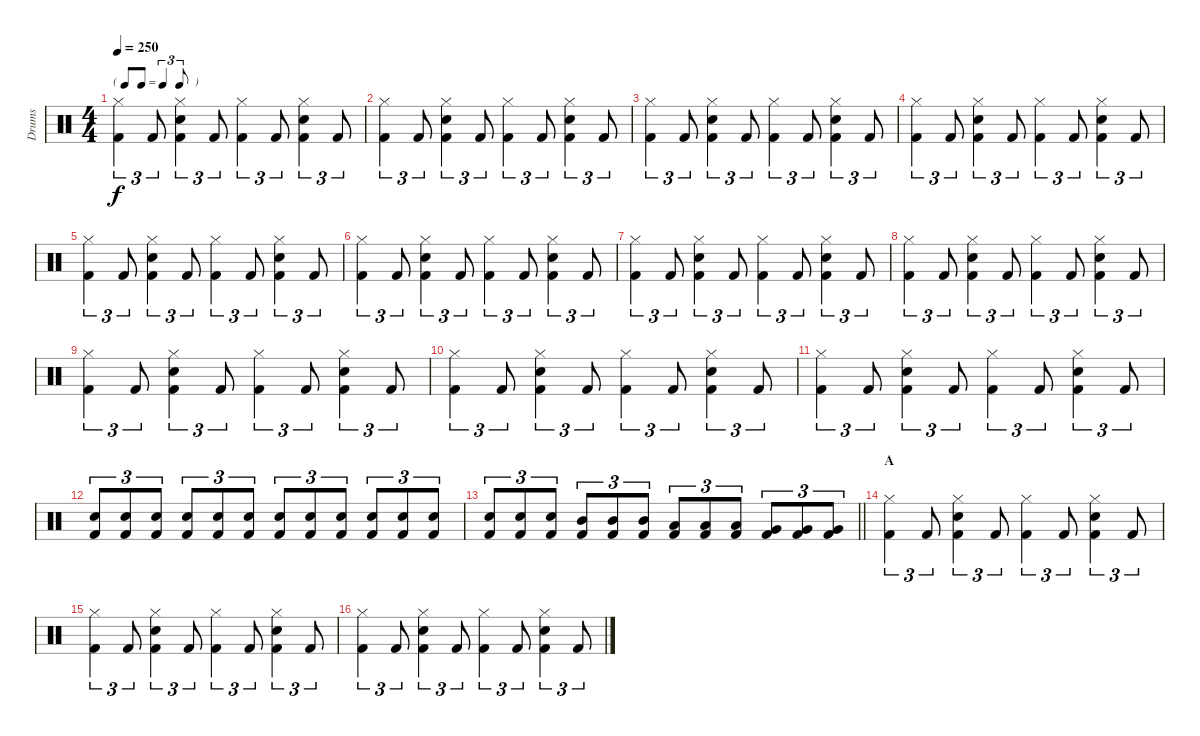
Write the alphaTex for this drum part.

\track ("Drums" "Drums") {instrument percussion}
\staff {score}
\articulation defaults
\ts (4 4)
\tf triplet8th
\tempo 250
\clef neutral
\ks aminor
("Hi-Hat (closed)" "Kick (hit) 2").4{tu (3 2) dy f} "Kick (hit) 2".8{tu (3 2)} ("Hi-Hat (closed)" "Electric Snare (hit)" "Kick (hit) 2").4{tu (3 2)} "Kick (hit) 2".8{tu (3 2)} ("Hi-Hat (closed)" "Kick (hit) 2").4{tu (3 2)} "Kick (hit) 2".8{tu (3 2)} ("Hi-Hat (closed)" "Electric Snare (hit)" "Kick (hit) 2").4{tu (3 2)} "Kick (hit) 2".8{tu (3 2)} |
("Hi-Hat (closed)" "Kick (hit) 2").4{tu (3 2)} "Kick (hit) 2".8{tu (3 2)} ("Hi-Hat (closed)" "Electric Snare (hit)" "Kick (hit) 2").4{tu (3 2)} "Kick (hit) 2".8{tu (3 2)} ("Hi-Hat (closed)" "Kick (hit) 2").4{tu (3 2)} "Kick (hit) 2".8{tu (3 2)} ("Hi-Hat (closed)" "Electric Snare (hit)" "Kick (hit) 2").4{tu (3 2)} "Kick (hit) 2".8{tu (3 2)} |
("Hi-Hat (closed)" "Kick (hit) 2").4{tu (3 2)} "Kick (hit) 2".8{tu (3 2)} ("Hi-Hat (closed)" "Electric Snare (hit)" "Kick (hit) 2").4{tu (3 2)} "Kick (hit) 2".8{tu (3 2)} ("Hi-Hat (closed)" "Kick (hit) 2").4{tu (3 2)} "Kick (hit) 2".8{tu (3 2)} ("Hi-Hat (closed)" "Electric Snare (hit)" "Kick (hit) 2").4{tu (3 2)} "Kick (hit) 2".8{tu (3 2)} |
("Hi-Hat (closed)" "Kick (hit) 2").4{tu (3 2)} "Kick (hit) 2".8{tu (3 2)} ("Hi-Hat (closed)" "Electric Snare (hit)" "Kick (hit) 2").4{tu (3 2)} "Kick (hit) 2".8{tu (3 2)} ("Hi-Hat (closed)" "Kick (hit) 2").4{tu (3 2)} "Kick (hit) 2".8{tu (3 2)} ("Hi-Hat (closed)" "Electric Snare (hit)" "Kick (hit) 2").4{tu (3 2)} "Kick (hit) 2".8{tu (3 2)} |
("Hi-Hat (closed)" "Kick (hit) 2").4{tu (3 2)} "Kick (hit) 2".8{tu (3 2)} ("Hi-Hat (closed)" "Electric Snare (hit)" "Kick (hit) 2").4{tu (3 2)} "Kick (hit) 2".8{tu (3 2)} ("Hi-Hat (closed)" "Kick (hit) 2").4{tu (3 2)} "Kick (hit) 2".8{tu (3 2)} ("Hi-Hat (closed)" "Electric Snare (hit)" "Kick (hit) 2").4{tu (3 2)} "Kick (hit) 2".8{tu (3 2)} |
("Hi-Hat (closed)" "Kick (hit) 2").4{tu (3 2)} "Kick (hit) 2".8{tu (3 2)} ("Hi-Hat (closed)" "Electric Snare (hit)" "Kick (hit) 2").4{tu (3 2)} "Kick (hit) 2".8{tu (3 2)} ("Hi-Hat (closed)" "Kick (hit) 2").4{tu (3 2)} "Kick (hit) 2".8{tu (3 2)} ("Hi-Hat (closed)" "Electric Snare (hit)" "Kick (hit) 2").4{tu (3 2)} "Kick (hit) 2".8{tu (3 2)} |
("Hi-Hat (closed)" "Kick (hit) 2").4{tu (3 2)} "Kick (hit) 2".8{tu (3 2)} ("Hi-Hat (closed)" "Electric Snare (hit)" "Kick (hit) 2").4{tu (3 2)} "Kick (hit) 2".8{tu (3 2)} ("Hi-Hat (closed)" "Kick (hit) 2").4{tu (3 2)} "Kick (hit) 2".8{tu (3 2)} ("Hi-Hat (closed)" "Electric Snare (hit)" "Kick (hit) 2").4{tu (3 2)} "Kick (hit) 2".8{tu (3 2)} |
("Hi-Hat (closed)" "Kick (hit) 2").4{tu (3 2)} "Kick (hit) 2".8{tu (3 2)} ("Hi-Hat (closed)" "Electric Snare (hit)" "Kick (hit) 2").4{tu (3 2)} "Kick (hit) 2".8{tu (3 2)} ("Hi-Hat (closed)" "Kick (hit) 2").4{tu (3 2)} "Kick (hit) 2".8{tu (3 2)} ("Hi-Hat (closed)" "Electric Snare (hit)" "Kick (hit) 2").4{tu (3 2)} "Kick (hit) 2".8{tu (3 2)} |
("Hi-Hat (closed)" "Kick (hit) 2").4{tu (3 2)} "Kick (hit) 2".8{tu (3 2)} ("Hi-Hat (closed)" "Electric Snare (hit)" "Kick (hit) 2").4{tu (3 2)} "Kick (hit) 2".8{tu (3 2)} ("Hi-Hat (closed)" "Kick (hit) 2").4{tu (3 2)} "Kick (hit) 2".8{tu (3 2)} ("Hi-Hat (closed)" "Electric Snare (hit)" "Kick (hit) 2").4{tu (3 2)} "Kick (hit) 2".8{tu (3 2)} |
("Hi-Hat (closed)" "Kick (hit) 2").4{tu (3 2)} "Kick (hit) 2".8{tu (3 2)} ("Hi-Hat (closed)" "Electric Snare (hit)" "Kick (hit) 2").4{tu (3 2)} "Kick (hit) 2".8{tu (3 2)} ("Hi-Hat (closed)" "Kick (hit) 2").4{tu (3 2)} "Kick (hit) 2".8{tu (3 2)} ("Hi-Hat (closed)" "Electric Snare (hit)" "Kick (hit) 2").4{tu (3 2)} "Kick (hit) 2".8{tu (3 2)} |
("Hi-Hat (closed)" "Kick (hit) 2").4{tu (3 2)} "Kick (hit) 2".8{tu (3 2)} ("Hi-Hat (closed)" "Electric Snare (hit)" "Kick (hit) 2").4{tu (3 2)} "Kick (hit) 2".8{tu (3 2)} ("Hi-Hat (closed)" "Kick (hit) 2").4{tu (3 2)} "Kick (hit) 2".8{tu (3 2)} ("Hi-Hat (closed)" "Electric Snare (hit)" "Kick (hit) 2").4{tu (3 2)} "Kick (hit) 2".8{tu (3 2)} |
("Electric Snare (hit)" "Kick (hit) 2").8{tu (3 2)} ("Electric Snare (hit)" "Kick (hit) 2").8{tu (3 2)} ("Electric Snare (hit)" "Kick (hit) 2").8{tu (3 2)} ("Electric Snare (hit)" "Kick (hit) 2").8{tu (3 2)} ("Electric Snare (hit)" "Kick (hit) 2").8{tu (3 2)} ("Electric Snare (hit)" "Kick (hit) 2").8{tu (3 2)} ("Electric Snare (hit)" "Kick (hit) 2").8{tu (3 2)} ("Electric Snare (hit)" "Kick (hit) 2").8{tu (3 2)} ("Electric Snare (hit)" "Kick (hit) 2").8{tu (3 2)} ("Electric Snare (hit)" "Kick (hit) 2").8{tu (3 2)} ("Electric Snare (hit)" "Kick (hit) 2").8{tu (3 2)} ("Electric Snare (hit)" "Kick (hit) 2").8{tu (3 2)} |
\barLineRight lightlight
("Electric Snare (hit)" "Kick (hit) 2").8{tu (3 2)} ("Electric Snare (hit)" "Kick (hit) 2").8{tu (3 2)} ("Electric Snare (hit)" "Kick (hit) 2").8{tu (3 2)} ("Mid Tom (hit)" "Kick (hit) 2").8{tu (3 2)} ("Mid Tom (hit)" "Kick (hit) 2").8{tu (3 2)} ("Mid Tom (hit)" "Kick (hit) 2").8{tu (3 2)} ("Low Tom (hit)" "Kick (hit) 2").8{tu (3 2)} ("Low Tom (hit)" "Kick (hit) 2").8{tu (3 2)} ("Low Tom (hit)" "Kick (hit) 2").8{tu (3 2)} ("Very Low Tom (hit)" "Kick (hit) 2").8{tu (3 2)} ("Very Low Tom (hit)" "Kick (hit) 2").8{tu (3 2)} ("Very Low Tom (hit)" "Kick (hit) 2").8{tu (3 2)} |
\section ("" "A")
("Hi-Hat (closed)" "Kick (hit) 2").4{tu (3 2)} "Kick (hit) 2".8{tu (3 2)} ("Hi-Hat (closed)" "Electric Snare (hit)" "Kick (hit) 2").4{tu (3 2)} "Kick (hit) 2".8{tu (3 2)} ("Hi-Hat (closed)" "Kick (hit) 2").4{tu (3 2)} "Kick (hit) 2".8{tu (3 2)} ("Hi-Hat (closed)" "Electric Snare (hit)" "Kick (hit) 2").4{tu (3 2)} "Kick (hit) 2".8{tu (3 2)} |
("Hi-Hat (closed)" "Kick (hit) 2").4{tu (3 2)} "Kick (hit) 2".8{tu (3 2)} ("Hi-Hat (closed)" "Electric Snare (hit)" "Kick (hit) 2").4{tu (3 2)} "Kick (hit) 2".8{tu (3 2)} ("Hi-Hat (closed)" "Kick (hit) 2").4{tu (3 2)} "Kick (hit) 2".8{tu (3 2)} ("Hi-Hat (closed)" "Electric Snare (hit)" "Kick (hit) 2").4{tu (3 2)} "Kick (hit) 2".8{tu (3 2)} |
("Hi-Hat (closed)" "Kick (hit) 2").4{tu (3 2)} "Kick (hit) 2".8{tu (3 2)} ("Hi-Hat (closed)" "Electric Snare (hit)" "Kick (hit) 2").4{tu (3 2)} "Kick (hit) 2".8{tu (3 2)} ("Hi-Hat (closed)" "Kick (hit) 2").4{tu (3 2)} "Kick (hit) 2".8{tu (3 2)} ("Hi-Hat (closed)" "Electric Snare (hit)" "Kick (hit) 2").4{tu (3 2)} "Kick (hit) 2".8{tu (3 2)}
